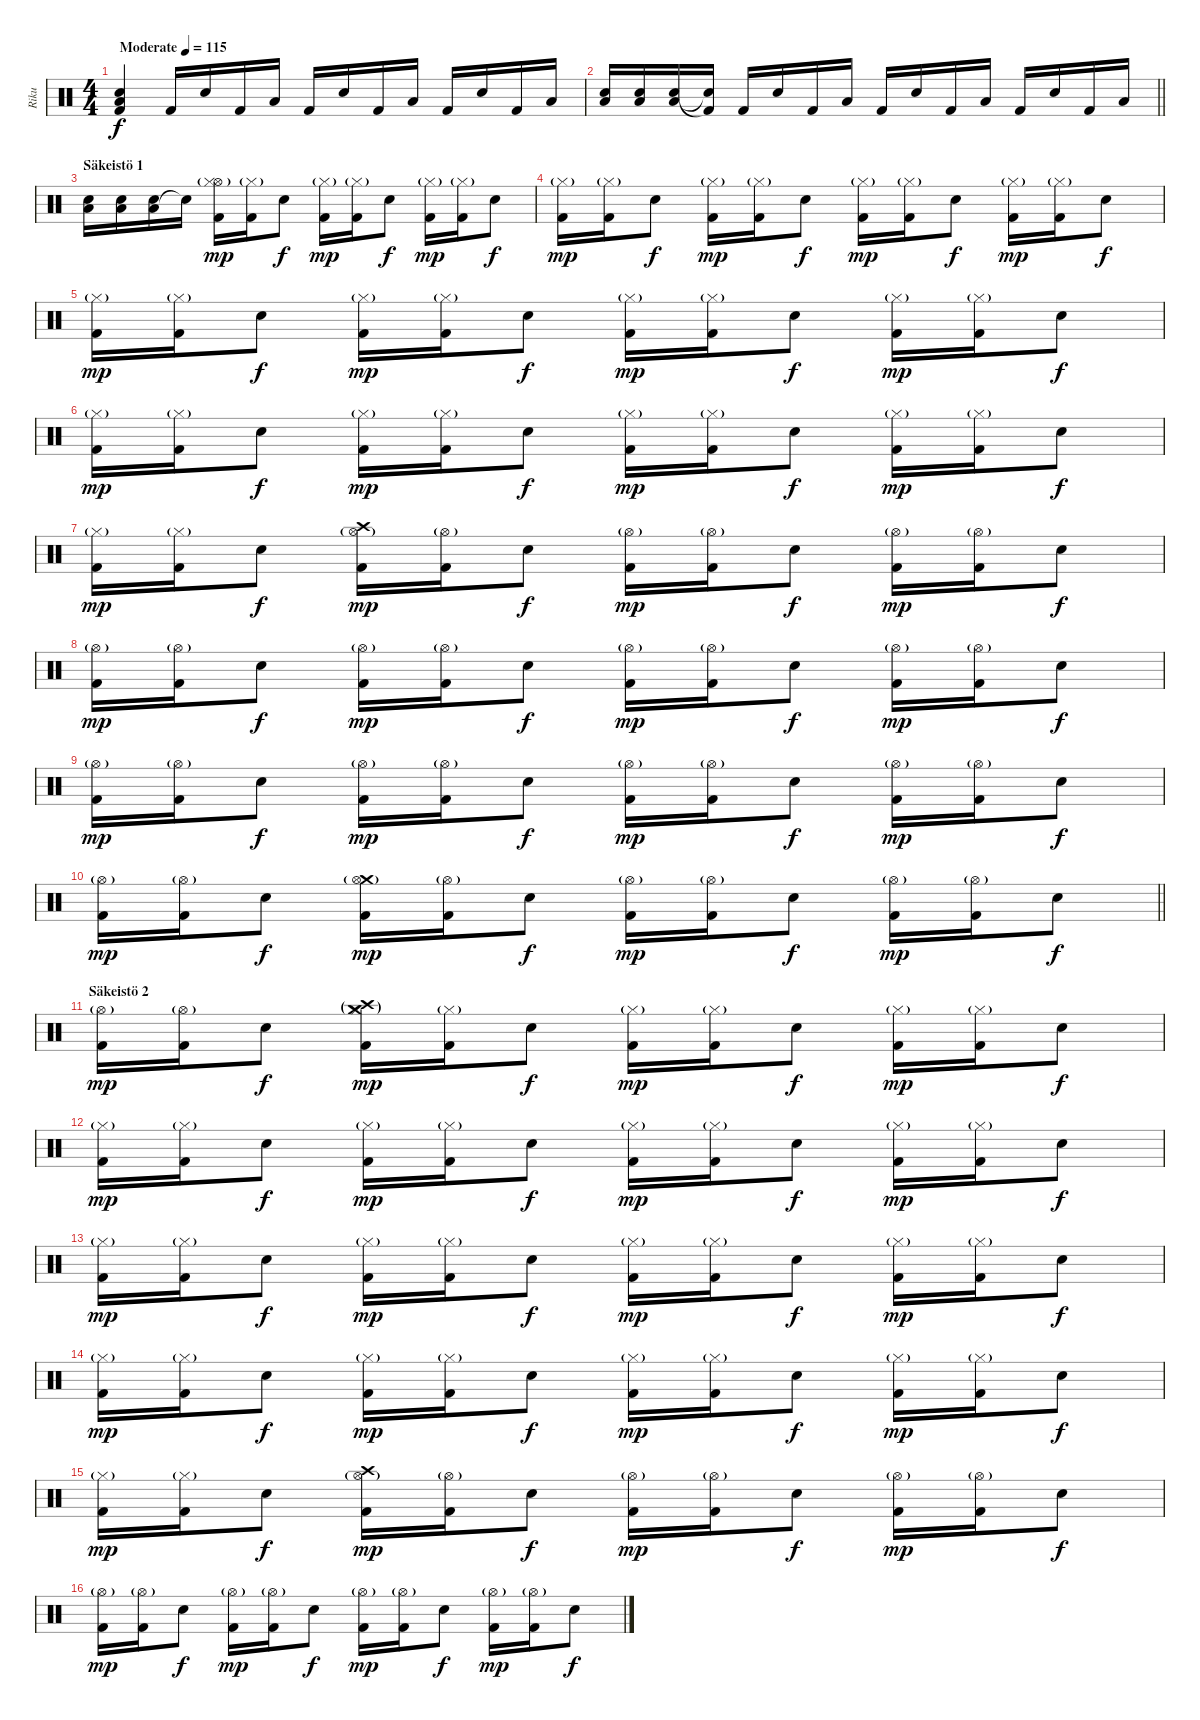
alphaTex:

\track ("Riku" "Riku") {instrument percussion}
\staff {score}
\articulation defaults
\ts (4 4)
\tempo (115 "Moderate")
\clef neutral
\ks c
("Low Tom (hit)" "Electric Snare (hit)" "Kick (hit) 2").4{dy f} "Kick (hit) 2".16 "Snare (hit) 2".16 "Kick (hit) 2".16 "Low Tom (hit)".16 "Kick (hit) 2".16 "Snare (hit) 2".16 "Kick (hit) 2".16 "Low Tom (hit)".16 "Kick (hit) 2".16 "Snare (hit) 2".16 "Kick (hit) 2".16 "Low Tom (hit)".16 |
\barLineRight lightlight
("Low Tom (hit)" "Snare (hit) 2").16 ("Low Tom (hit)" "Snare (hit) 2").16 ("Low Tom (hit)" "Snare (hit) 2").16 ("Snare (hit)"{t} "Kick (hit) 2"{t}).16 "Kick (hit) 2".16 "Snare (hit) 2".16 "Kick (hit) 2".16 "Low Tom (hit)".16 "Kick (hit) 2".16 "Snare (hit) 2".16 "Kick (hit) 2".16 "Low Tom (hit)".16 "Kick (hit) 2".16 "Snare (hit) 2".16 "Kick (hit) 2".16 "Low Tom (hit)".16 |
\section ("" "Säkeistö 1")
("Low Tom (hit)" "Snare (hit) 2").16 ("Low Tom (hit)" "Snare (hit) 2").16 ("Low Tom (hit)" "Snare (hit) 2").16 "Snare (hit)"{t}.16 ("Hi-Hat (open)" "Hi-Hat (closed)"{g} "Kick (hit) 2").16{dy mp} ("Hi-Hat (closed)"{g} "Kick (hit) 2").16 "Snare (hit) 2".8{dy f} ("Hi-Hat (closed)"{g} "Kick (hit) 2").16{dy mp} ("Hi-Hat (closed)"{g} "Kick (hit) 2").16 "Snare (hit) 2".8{dy f} ("Hi-Hat (closed)"{g} "Kick (hit) 2").16{dy mp} ("Hi-Hat (closed)"{g} "Kick (hit) 2").16 "Snare (hit) 2".8{dy f} |
("Hi-Hat (closed)"{g} "Kick (hit) 2").16{dy mp} ("Hi-Hat (closed)"{g} "Kick (hit) 2").16 "Snare (hit) 2".8{dy f} ("Hi-Hat (closed)"{g} "Kick (hit) 2").16{dy mp} ("Hi-Hat (closed)"{g} "Kick (hit) 2").16 "Snare (hit) 2".8{dy f} ("Hi-Hat (closed)"{g} "Kick (hit) 2").16{dy mp} ("Hi-Hat (closed)"{g} "Kick (hit) 2").16 "Snare (hit) 2".8{dy f} ("Hi-Hat (closed)"{g} "Kick (hit) 2").16{dy mp} ("Hi-Hat (closed)"{g} "Kick (hit) 2").16 "Snare (hit) 2".8{dy f} |
("Hi-Hat (closed)"{g} "Kick (hit) 2").16{dy mp} ("Hi-Hat (closed)"{g} "Kick (hit) 2").16 "Snare (hit) 2".8{dy f} ("Hi-Hat (closed)"{g} "Kick (hit) 2").16{dy mp} ("Hi-Hat (closed)"{g} "Kick (hit) 2").16 "Snare (hit) 2".8{dy f} ("Hi-Hat (closed)"{g} "Kick (hit) 2").16{dy mp} ("Hi-Hat (closed)"{g} "Kick (hit) 2").16 "Snare (hit) 2".8{dy f} ("Hi-Hat (closed)"{g} "Kick (hit) 2").16{dy mp} ("Hi-Hat (closed)"{g} "Kick (hit) 2").16 "Snare (hit) 2".8{dy f} |
("Hi-Hat (closed)"{g} "Kick (hit) 2").16{dy mp} ("Hi-Hat (closed)"{g} "Kick (hit) 2").16 "Snare (hit) 2".8{dy f} ("Hi-Hat (closed)"{g} "Kick (hit) 2").16{dy mp} ("Hi-Hat (closed)"{g} "Kick (hit) 2").16 "Snare (hit) 2".8{dy f} ("Hi-Hat (closed)"{g} "Kick (hit) 2").16{dy mp} ("Hi-Hat (closed)"{g} "Kick (hit) 2").16 "Snare (hit) 2".8{dy f} ("Hi-Hat (closed)"{g} "Kick (hit) 2").16{dy mp} ("Hi-Hat (closed)"{g} "Kick (hit) 2").16 "Snare (hit) 2".8{dy f} |
("Hi-Hat (closed)"{g} "Kick (hit) 2").16{dy mp} ("Hi-Hat (closed)"{g} "Kick (hit) 2").16 "Snare (hit) 2".8{dy f} ("Crash high (hit)" "Hi-Hat (open)"{g} "Kick (hit) 2").16{dy mp} ("Hi-Hat (open)"{g} "Kick (hit) 2").16 "Snare (hit) 2".8{dy f} ("Hi-Hat (open)"{g} "Kick (hit) 2").16{dy mp} ("Hi-Hat (open)"{g} "Kick (hit) 2").16 "Snare (hit) 2".8{dy f} ("Hi-Hat (open)"{g} "Kick (hit) 2").16{dy mp} ("Hi-Hat (open)"{g} "Kick (hit) 2").16 "Snare (hit) 2".8{dy f} |
("Hi-Hat (open)"{g} "Kick (hit) 2").16{dy mp} ("Hi-Hat (open)"{g} "Kick (hit) 2").16 "Snare (hit) 2".8{dy f} ("Hi-Hat (open)"{g} "Kick (hit) 2").16{dy mp} ("Hi-Hat (open)"{g} "Kick (hit) 2").16 "Snare (hit) 2".8{dy f} ("Hi-Hat (open)"{g} "Kick (hit) 2").16{dy mp} ("Hi-Hat (open)"{g} "Kick (hit) 2").16 "Snare (hit) 2".8{dy f} ("Hi-Hat (open)"{g} "Kick (hit) 2").16{dy mp} ("Hi-Hat (open)"{g} "Kick (hit) 2").16 "Snare (hit) 2".8{dy f} |
("Hi-Hat (open)"{g} "Kick (hit) 2").16{dy mp} ("Hi-Hat (open)"{g} "Kick (hit) 2").16 "Snare (hit) 2".8{dy f} ("Hi-Hat (open)"{g} "Kick (hit) 2").16{dy mp} ("Hi-Hat (open)"{g} "Kick (hit) 2").16 "Snare (hit) 2".8{dy f} ("Hi-Hat (open)"{g} "Kick (hit) 2").16{dy mp} ("Hi-Hat (open)"{g} "Kick (hit) 2").16 "Snare (hit) 2".8{dy f} ("Hi-Hat (open)"{g} "Kick (hit) 2").16{dy mp} ("Hi-Hat (open)"{g} "Kick (hit) 2").16 "Snare (hit) 2".8{dy f} |
\barLineRight lightlight
("Hi-Hat (open)"{g} "Kick (hit) 2").16{dy mp} ("Hi-Hat (open)"{g} "Kick (hit) 2").16 "Snare (hit) 2".8{dy f} ("Crash medium (hit)" "Hi-Hat (open)"{g} "Kick (hit) 2").16{dy mp} ("Hi-Hat (open)"{g} "Kick (hit) 2").16 "Snare (hit) 2".8{dy f} ("Hi-Hat (open)"{g} "Kick (hit) 2").16{dy mp} ("Hi-Hat (open)"{g} "Kick (hit) 2").16 "Snare (hit) 2".8{dy f} ("Hi-Hat (open)"{g} "Kick (hit) 2").16{dy mp} ("Hi-Hat (open)"{g} "Kick (hit) 2").16 "Snare (hit) 2".8{dy f} |
\section ("" "Säkeistö 2")
("Hi-Hat (open)"{g} "Kick (hit) 2").16{dy mp} ("Hi-Hat (open)"{g} "Kick (hit) 2").16 "Snare (hit) 2".8{dy f} ("Crash high (hit)"{g} "Crash medium (hit)"{g} "Hi-Hat (closed)"{g} "Kick (hit) 2").16{dy mp} ("Hi-Hat (closed)"{g} "Kick (hit) 2").16 "Snare (hit) 2".8{dy f} ("Hi-Hat (closed)"{g} "Kick (hit) 2").16{dy mp} ("Hi-Hat (closed)"{g} "Kick (hit) 2").16 "Snare (hit) 2".8{dy f} ("Hi-Hat (closed)"{g} "Kick (hit) 2").16{dy mp} ("Hi-Hat (closed)"{g} "Kick (hit) 2").16 "Snare (hit) 2".8{dy f} |
("Hi-Hat (closed)"{g} "Kick (hit) 2").16{dy mp} ("Hi-Hat (closed)"{g} "Kick (hit) 2").16 "Snare (hit) 2".8{dy f} ("Hi-Hat (closed)"{g} "Kick (hit) 2").16{dy mp} ("Hi-Hat (closed)"{g} "Kick (hit) 2").16 "Snare (hit) 2".8{dy f} ("Hi-Hat (closed)"{g} "Kick (hit) 2").16{dy mp} ("Hi-Hat (closed)"{g} "Kick (hit) 2").16 "Snare (hit) 2".8{dy f} ("Hi-Hat (closed)"{g} "Kick (hit) 2").16{dy mp} ("Hi-Hat (closed)"{g} "Kick (hit) 2").16 "Snare (hit) 2".8{dy f} |
("Hi-Hat (closed)"{g} "Kick (hit) 2").16{dy mp} ("Hi-Hat (closed)"{g} "Kick (hit) 2").16 "Snare (hit) 2".8{dy f} ("Hi-Hat (closed)"{g} "Kick (hit) 2").16{dy mp} ("Hi-Hat (closed)"{g} "Kick (hit) 2").16 "Snare (hit) 2".8{dy f} ("Hi-Hat (closed)"{g} "Kick (hit) 2").16{dy mp} ("Hi-Hat (closed)"{g} "Kick (hit) 2").16 "Snare (hit) 2".8{dy f} ("Hi-Hat (closed)"{g} "Kick (hit) 2").16{dy mp} ("Hi-Hat (closed)"{g} "Kick (hit) 2").16 "Snare (hit) 2".8{dy f} |
("Hi-Hat (closed)"{g} "Kick (hit) 2").16{dy mp} ("Hi-Hat (closed)"{g} "Kick (hit) 2").16 "Snare (hit) 2".8{dy f} ("Hi-Hat (closed)"{g} "Kick (hit) 2").16{dy mp} ("Hi-Hat (closed)"{g} "Kick (hit) 2").16 "Snare (hit) 2".8{dy f} ("Hi-Hat (closed)"{g} "Kick (hit) 2").16{dy mp} ("Hi-Hat (closed)"{g} "Kick (hit) 2").16 "Snare (hit) 2".8{dy f} ("Hi-Hat (closed)"{g} "Kick (hit) 2").16{dy mp} ("Hi-Hat (closed)"{g} "Kick (hit) 2").16 "Snare (hit) 2".8{dy f} |
("Hi-Hat (closed)"{g} "Kick (hit) 2").16{dy mp} ("Hi-Hat (closed)"{g} "Kick (hit) 2").16 "Snare (hit) 2".8{dy f} ("Crash high (hit)" "Hi-Hat (open)"{g} "Kick (hit) 2").16{dy mp} ("Hi-Hat (open)"{g} "Kick (hit) 2").16 "Snare (hit) 2".8{dy f} ("Hi-Hat (open)"{g} "Kick (hit) 2").16{dy mp} ("Hi-Hat (open)"{g} "Kick (hit) 2").16 "Snare (hit) 2".8{dy f} ("Hi-Hat (open)"{g} "Kick (hit) 2").16{dy mp} ("Hi-Hat (open)"{g} "Kick (hit) 2").16 "Snare (hit) 2".8{dy f} |
("Hi-Hat (open)"{g} "Kick (hit) 2").16{dy mp} ("Hi-Hat (open)"{g} "Kick (hit) 2").16 "Snare (hit) 2".8{dy f} ("Hi-Hat (open)"{g} "Kick (hit) 2").16{dy mp} ("Hi-Hat (open)"{g} "Kick (hit) 2").16 "Snare (hit) 2".8{dy f} ("Hi-Hat (open)"{g} "Kick (hit) 2").16{dy mp} ("Hi-Hat (open)"{g} "Kick (hit) 2").16 "Snare (hit) 2".8{dy f} ("Hi-Hat (open)"{g} "Kick (hit) 2").16{dy mp} ("Hi-Hat (open)"{g} "Kick (hit) 2").16 "Snare (hit) 2".8{dy f}
